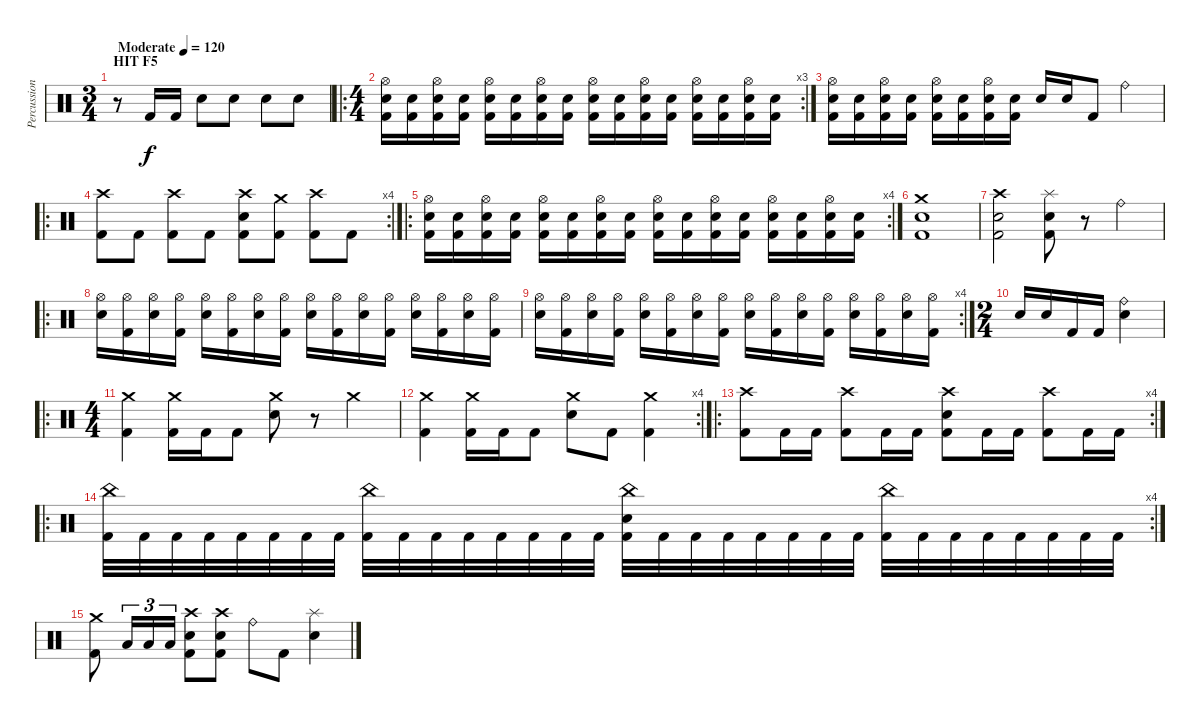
\track ("Percussion" "Percussion") {instrument percussion}
\staff {score}
\articulation defaults
\ts (3 4)
\section ("" "HIT F5")
\tempo (120 "Moderate")
\clef neutral
\ks c
r.8{dy f} "Kick (hit) 2".16 "Kick (hit) 2".16 "Electric Snare (hit)".8 "Electric Snare (hit)".8 "Electric Snare (hit)".8 "Electric Snare (hit)".8 |
\ro
\rc 3
\ts (4 4)
("Hi-Hat (open)" "Electric Snare (hit)" "Kick (hit) 2").16 ("Electric Snare (hit)" "Kick (hit) 2").16 ("Hi-Hat (open)" "Electric Snare (hit)" "Kick (hit) 2").16 ("Electric Snare (hit)" "Kick (hit) 2").16 ("Hi-Hat (open)" "Electric Snare (hit)" "Kick (hit) 2").16 ("Electric Snare (hit)" "Kick (hit) 2").16 ("Hi-Hat (open)" "Electric Snare (hit)" "Kick (hit) 2").16 ("Electric Snare (hit)" "Kick (hit) 2").16 ("Hi-Hat (open)" "Electric Snare (hit)" "Kick (hit) 2").16 ("Electric Snare (hit)" "Kick (hit) 2").16 ("Hi-Hat (open)" "Electric Snare (hit)" "Kick (hit) 2").16 ("Electric Snare (hit)" "Kick (hit) 2").16 ("Hi-Hat (open)" "Electric Snare (hit)" "Kick (hit) 2").16 ("Electric Snare (hit)" "Kick (hit) 2").16 ("Hi-Hat (open)" "Electric Snare (hit)" "Kick (hit) 2").16 ("Electric Snare (hit)" "Kick (hit) 2").16 |
("Hi-Hat (open)" "Electric Snare (hit)" "Kick (hit) 2").16 ("Electric Snare (hit)" "Kick (hit) 2").16 ("Hi-Hat (open)" "Electric Snare (hit)" "Kick (hit) 2").16 ("Electric Snare (hit)" "Kick (hit) 2").16 ("Hi-Hat (open)" "Electric Snare (hit)" "Kick (hit) 2").16 ("Electric Snare (hit)" "Kick (hit) 2").16 ("Hi-Hat (open)" "Electric Snare (hit)" "Kick (hit) 2").16 ("Electric Snare (hit)" "Kick (hit) 2").16 "Electric Snare (hit)".16 "Electric Snare (hit)".16 "Kick (hit) 2".8 "Ride (bell)".4 |
\ro
\rc 4
("Crash high (hit)" "Kick (hit) 2").8 "Kick (hit) 2".8 ("Crash high (hit)" "Kick (hit) 2").8 "Kick (hit) 2".8 ("Crash high (hit)" "Electric Snare (hit)" "Kick (hit) 2").8 ("Crash medium (hit)" "Kick (hit) 2").8 ("Crash high (hit)" "Kick (hit) 2").8 "Kick (hit) 2".8 |
\ro
\rc 4
("Hi-Hat (open)" "Electric Snare (hit)" "Kick (hit) 2").16 ("Electric Snare (hit)" "Kick (hit) 2").16 ("Hi-Hat (open)" "Electric Snare (hit)" "Kick (hit) 2").16 ("Electric Snare (hit)" "Kick (hit) 2").16 ("Hi-Hat (open)" "Electric Snare (hit)" "Kick (hit) 2").16 ("Electric Snare (hit)" "Kick (hit) 2").16 ("Hi-Hat (open)" "Electric Snare (hit)" "Kick (hit) 2").16 ("Electric Snare (hit)" "Kick (hit) 2").16 ("Hi-Hat (open)" "Electric Snare (hit)" "Kick (hit) 2").16 ("Electric Snare (hit)" "Kick (hit) 2").16 ("Hi-Hat (open)" "Electric Snare (hit)" "Kick (hit) 2").16 ("Electric Snare (hit)" "Kick (hit) 2").16 ("Hi-Hat (open)" "Electric Snare (hit)" "Kick (hit) 2").16 ("Electric Snare (hit)" "Kick (hit) 2").16 ("Hi-Hat (open)" "Electric Snare (hit)" "Kick (hit) 2").16 ("Electric Snare (hit)" "Kick (hit) 2").16 |
("Crash medium (hit)" "Electric Snare (hit)" "Kick (hit) 2").1 |
("Crash high (hit)" "Electric Snare (hit)" "Kick (hit) 2").2 ("Splash (hit)" "Electric Snare (hit)" "Kick (hit) 2").8 r.8 "Ride (bell)".4 |
\ro
("Hi-Hat (open)" "Electric Snare (hit)").16 ("Hi-Hat (open)" "Kick (hit) 2").16 ("Hi-Hat (open)" "Electric Snare (hit)").16 ("Hi-Hat (open)" "Kick (hit) 2").16 ("Hi-Hat (open)" "Electric Snare (hit)").16 ("Hi-Hat (open)" "Kick (hit) 2").16 ("Hi-Hat (open)" "Electric Snare (hit)").16 ("Hi-Hat (open)" "Kick (hit) 2").16 ("Hi-Hat (open)" "Electric Snare (hit)").16 ("Hi-Hat (open)" "Kick (hit) 2").16 ("Hi-Hat (open)" "Electric Snare (hit)").16 ("Hi-Hat (open)" "Kick (hit) 2").16 ("Hi-Hat (open)" "Electric Snare (hit)").16 ("Hi-Hat (open)" "Kick (hit) 2").16 ("Hi-Hat (open)" "Electric Snare (hit)").16 ("Hi-Hat (open)" "Kick (hit) 2").16 |
\rc 4
("Hi-Hat (open)" "Electric Snare (hit)").16 ("Hi-Hat (open)" "Kick (hit) 2").16 ("Hi-Hat (open)" "Electric Snare (hit)").16 ("Hi-Hat (open)" "Kick (hit) 2").16 ("Hi-Hat (open)" "Electric Snare (hit)").16 ("Hi-Hat (open)" "Kick (hit) 2").16 ("Hi-Hat (open)" "Electric Snare (hit)").16 ("Hi-Hat (open)" "Kick (hit) 2").16 ("Hi-Hat (open)" "Electric Snare (hit)").16 ("Hi-Hat (open)" "Kick (hit) 2").16 ("Hi-Hat (open)" "Electric Snare (hit)").16 ("Hi-Hat (open)" "Kick (hit) 2").16 ("Hi-Hat (open)" "Electric Snare (hit)").16 ("Hi-Hat (open)" "Kick (hit) 2").16 ("Hi-Hat (open)" "Electric Snare (hit)").16 ("Hi-Hat (open)" "Kick (hit) 2").16 |
\ts (2 4)
"Electric Snare (hit)".16 "Electric Snare (hit)".16 "Kick (hit) 2".16 "Kick (hit) 2".16 ("Ride (bell)" "Electric Snare (hit)").4 |
\ro
\ts (4 4)
("Crash medium (hit)" "Kick (hit) 2").4 ("Crash medium (hit)" "Kick (hit) 2").16 "Kick (hit) 2".16 "Kick (hit) 2".8 ("Crash medium (hit)" "Electric Snare (hit)").8 r.8 "Crash medium (hit)".4 |
\rc 4
("Crash medium (hit)" "Kick (hit) 2").4 ("Crash medium (hit)" "Kick (hit) 2").16 "Kick (hit) 2".16 "Kick (hit) 2".8 ("Crash medium (hit)" "Electric Snare (hit)").8 "Kick (hit) 2".8 ("Crash medium (hit)" "Kick (hit) 2").4 |
\ro
\rc 4
("Crash high (hit)" "Kick (hit) 2").8 "Kick (hit) 2".16 "Kick (hit) 2".16 ("Crash high (hit)" "Kick (hit) 2").8 "Kick (hit) 2".16 "Kick (hit) 2".16 ("Crash high (hit)" "Electric Snare (hit)" "Kick (hit) 2").8 "Kick (hit) 2".16 "Kick (hit) 2".16 ("Crash high (hit)" "Kick (hit) 2").8 "Kick (hit) 2".16 "Kick (hit) 2".16 |
\ro
\rc 4
("China (hit)" "Kick (hit) 2").32 "Kick (hit) 2".32 "Kick (hit) 2".32 "Kick (hit) 2".32 "Kick (hit) 2".32 "Kick (hit) 2".32 "Kick (hit) 2".32 "Kick (hit) 2".32 ("China (hit)" "Kick (hit) 2").32 "Kick (hit) 2".32 "Kick (hit) 2".32 "Kick (hit) 2".32 "Kick (hit) 2".32 "Kick (hit) 2".32 "Kick (hit) 2".32 "Kick (hit) 2".32 ("China (hit)" "Electric Snare (hit)" "Kick (hit) 2").32 "Kick (hit) 2".32 "Kick (hit) 2".32 "Kick (hit) 2".32 "Kick (hit) 2".32 "Kick (hit) 2".32 "Kick (hit) 2".32 "Kick (hit) 2".32 ("China (hit)" "Kick (hit) 2").32 "Kick (hit) 2".32 "Kick (hit) 2".32 "Kick (hit) 2".32 "Kick (hit) 2".32 "Kick (hit) 2".32 "Kick (hit) 2".32 "Kick (hit) 2".32 |
("Crash medium (hit)" "Kick (hit) 2").8 "Low Tom (hit)".16{tu (3 2)} "Low Tom (hit)".16{tu (3 2)} "Low Tom (hit)".16{tu (3 2)} ("Crash high (hit)" "Electric Snare (hit)" "Kick (hit) 2").8 ("Crash high (hit)" "Electric Snare (hit)" "Kick (hit) 2").8 "Ride (bell)".8 "Kick (hit) 2".8 ("Splash (hit)" "Electric Snare (hit)").4
